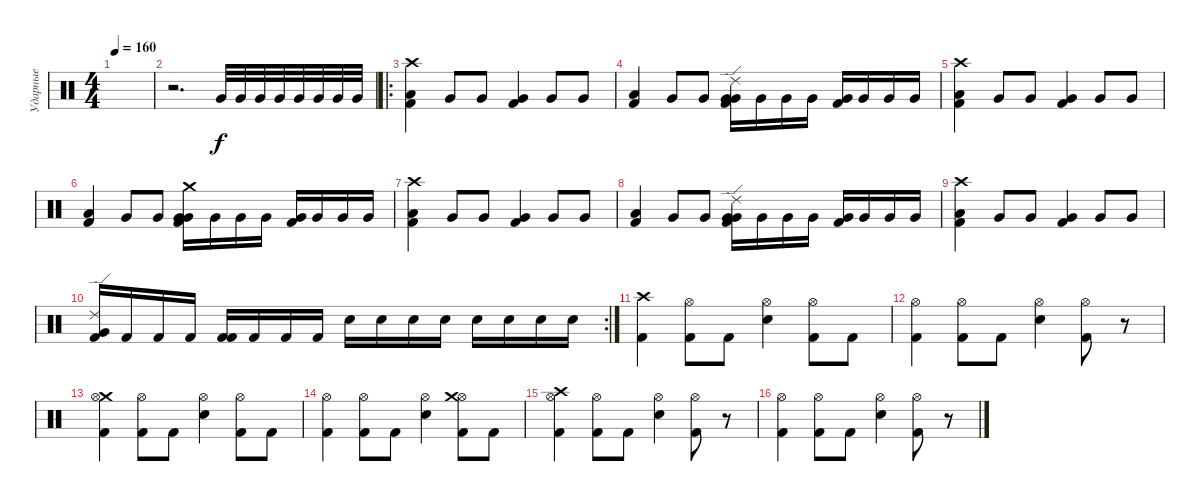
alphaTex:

\track ("Ударные" "Ударные") {instrument percussion}
\staff {score}
\articulation defaults
\ts (4 4)
\tempo 160
\clef neutral
\ks c
|
r.2{d} "Very Low Tom (hit)".32 "Very Low Tom (hit)".32 "Very Low Tom (hit)".32 "Very Low Tom (hit)".32 "Very Low Tom (hit)".32 "Very Low Tom (hit)".32 "Very Low Tom (hit)".32 "Very Low Tom (hit)".32 |
\ro
("Kick (hit) 2" "Low Tom (hit)" "Crash high (hit)").4 "Very Low Tom (hit)".8 "Very Low Tom (hit)".8 ("Kick (hit) 2" "Very Low Tom (hit)").4 "Very Low Tom (hit)".8 "Very Low Tom (hit)".8 |
("Kick (hit) 2" "Low Tom (hit)").4 "Very Low Tom (hit)".8 "Very Low Tom (hit)".8 ("Very Low Tom (hit)" "Kick (hit) 2" "Very Low Tom (hit)" "Ride (edge) 2").16 "Very Low Tom (hit)".16 "Very Low Tom (hit)".16 "Very Low Tom (hit)".16 ("Very Low Tom (hit)" "Kick (hit) 2").16 "Very Low Tom (hit)".16 "Very Low Tom (hit)".16 "Very Low Tom (hit)".16 |
("Kick (hit) 2" "Low Tom (hit)" "Crash high (hit)").4 "Very Low Tom (hit)".8 "Very Low Tom (hit)".8 ("Kick (hit) 2" "Very Low Tom (hit)").4 "Very Low Tom (hit)".8 "Very Low Tom (hit)".8 |
("Kick (hit) 2" "Low Tom (hit)").4 "Very Low Tom (hit)".8 "Very Low Tom (hit)".8 ("Very Low Tom (hit)" "Kick (hit) 2" "Very Low Tom (hit)" "Crash medium (hit)").16 "Very Low Tom (hit)".16 "Very Low Tom (hit)".16 "Very Low Tom (hit)".16 ("Very Low Tom (hit)" "Kick (hit) 2").16 "Very Low Tom (hit)".16 "Very Low Tom (hit)".16 "Very Low Tom (hit)".16 |
("Kick (hit) 2" "Low Tom (hit)" "Crash high (hit)").4 "Very Low Tom (hit)".8 "Very Low Tom (hit)".8 ("Kick (hit) 2" "Very Low Tom (hit)").4 "Very Low Tom (hit)".8 "Very Low Tom (hit)".8 |
("Kick (hit) 2" "Low Tom (hit)").4 "Very Low Tom (hit)".8 "Very Low Tom (hit)".8 ("Very Low Tom (hit)" "Kick (hit) 2" "Very Low Tom (hit)" "Ride (edge) 2").16 "Very Low Tom (hit)".16 "Very Low Tom (hit)".16 "Very Low Tom (hit)".16 ("Very Low Tom (hit)" "Kick (hit) 2").16 "Very Low Tom (hit)".16 "Very Low Tom (hit)".16 "Very Low Tom (hit)".16 |
("Kick (hit) 2" "Low Tom (hit)" "Crash high (hit)").4 "Very Low Tom (hit)".8 "Very Low Tom (hit)".8 ("Kick (hit) 2" "Very Low Tom (hit)").4 "Very Low Tom (hit)".8 "Very Low Tom (hit)".8 |
\rc 2
("Kick (hit) 2" "Very Low Tom (hit)" "Ride (edge) 2").16 "Kick (hit) 2".16 "Kick (hit) 2".16 "Kick (hit) 2".16 ("Kick (hit) 2" "Kick (hit) 2").16 "Kick (hit) 2".16 "Kick (hit) 2".16 "Kick (hit) 2".16 "Snare (hit) 2".16 "Snare (hit) 2".16 "Snare (hit) 2".16 "Snare (hit) 2".16 "Snare (hit) 2".16 "Snare (hit) 2".16 "Snare (hit) 2".16 "Snare (hit) 2".16 |
("Kick (hit) 2" "Crash high (hit)").4 ("Kick (hit) 2" "Hi-Hat (open)").8 "Kick (hit) 2".8 ("Hi-Hat (open)" "Snare (hit) 2").4 ("Kick (hit) 2" "Hi-Hat (open)").8 "Kick (hit) 2".8 |
("Kick (hit) 2" "Hi-Hat (open)").4 ("Kick (hit) 2" "Hi-Hat (open)").8 "Kick (hit) 2".8 ("Hi-Hat (open)" "Snare (hit) 2").4 ("Kick (hit) 2" "Hi-Hat (open)").8 r.8 |
("Kick (hit) 2" "Crash medium (hit)" "Hi-Hat (open)").4 ("Kick (hit) 2" "Hi-Hat (open)").8 "Kick (hit) 2".8 ("Hi-Hat (open)" "Snare (hit) 2").4 ("Kick (hit) 2" "Hi-Hat (open)").8 "Kick (hit) 2".8 |
("Kick (hit) 2" "Hi-Hat (open)").4 ("Kick (hit) 2" "Hi-Hat (open)").8 "Kick (hit) 2".8 ("Hi-Hat (open)" "Snare (hit) 2").4 ("Kick (hit) 2" "Hi-Hat (open)" "Crash medium (hit)").8 "Kick (hit) 2".8 |
("Kick (hit) 2" "Hi-Hat (open)" "Crash high (hit)").4 ("Kick (hit) 2" "Hi-Hat (open)").8 "Kick (hit) 2".8 ("Hi-Hat (open)" "Snare (hit) 2").4 ("Kick (hit) 2" "Hi-Hat (open)").8 r.8 |
("Kick (hit) 2" "Hi-Hat (open)").4 ("Kick (hit) 2" "Hi-Hat (open)").8 "Kick (hit) 2".8 ("Hi-Hat (open)" "Snare (hit) 2").4 ("Kick (hit) 2" "Hi-Hat (open)").8 r.8
